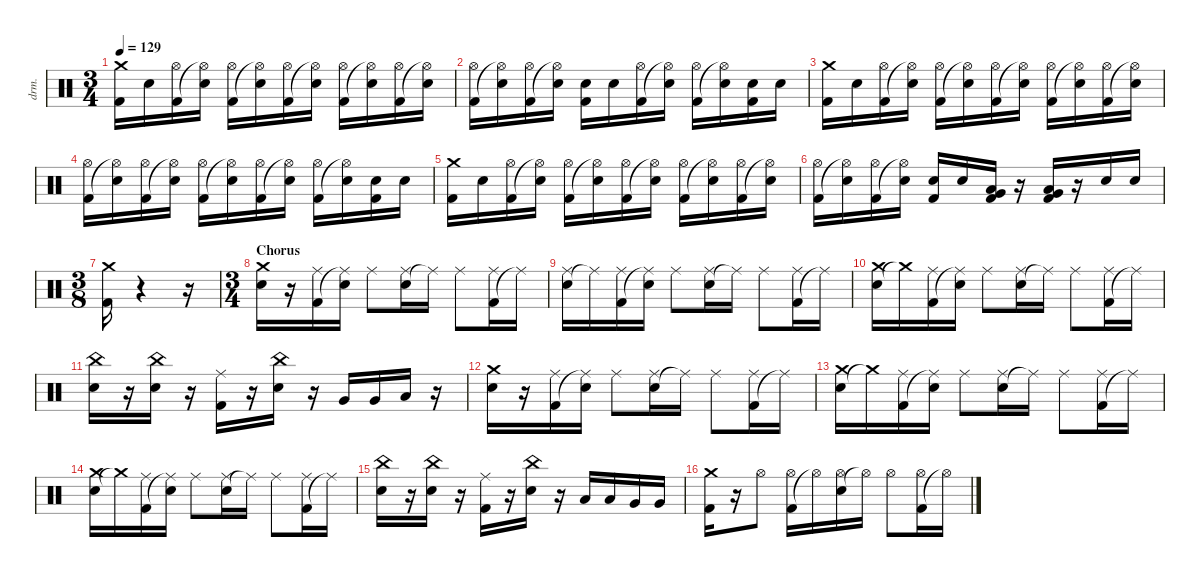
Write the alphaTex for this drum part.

\defaultSystemsLayout 4
\hideDynamics
\bracketExtendMode nobrackets
\otherSystemsTrackNameOrientation horizontal
\track ("Drumkit" "drm.") {instrument percussion}
\staff {score}
\articulation defaults
\ts (3 4)
\tempo 129
\clef neutral
\ks c
("Kick (hit) 2" "Crash medium (hit)").16{dy fff} "Snare (hit) 2".16 ("Kick (hit) 2" "Hi-Hat (open)"{acc #}).16 ("Hi-Hat (open)"{t acc #} "Snare (hit) 2").16 ("Kick (hit) 2" "Hi-Hat (open)"{acc #}).16 ("Hi-Hat (open)"{t acc #} "Snare (hit) 2").16 ("Kick (hit) 2" "Hi-Hat (open)"{acc #}).16 ("Hi-Hat (open)"{t acc #} "Snare (hit) 2").16 ("Kick (hit) 2" "Hi-Hat (open)"{acc #}).16 ("Hi-Hat (open)"{t acc #} "Snare (hit) 2").16 ("Kick (hit) 2" "Hi-Hat (open)"{acc #}).16 ("Hi-Hat (open)"{t acc #} "Snare (hit) 2").16 |
("Kick (hit) 2" "Hi-Hat (open)"{acc #}).16 ("Hi-Hat (open)"{t acc #} "Snare (hit) 2").16 ("Kick (hit) 2" "Hi-Hat (open)"{acc #}).16 ("Hi-Hat (open)"{t acc #} "Snare (hit) 2").16 ("Kick (hit) 2" "Snare (hit) 2").16 "Snare (hit) 2".16 ("Kick (hit) 2" "Hi-Hat (open)"{acc #}).16 ("Hi-Hat (open)"{t acc #} "Snare (hit) 2").16 ("Kick (hit) 2" "Hi-Hat (open)"{acc #}).16 ("Hi-Hat (open)"{t acc #} "Snare (hit) 2").16 ("Kick (hit) 2" "Snare (hit) 2").16 "Snare (hit) 2".16 |
("Kick (hit) 2" "Crash medium (hit)").16 "Snare (hit) 2".16 ("Kick (hit) 2" "Hi-Hat (open)"{acc #}).16 ("Hi-Hat (open)"{t acc #} "Snare (hit) 2").16 ("Kick (hit) 2" "Hi-Hat (open)"{acc #}).16 ("Hi-Hat (open)"{t acc #} "Snare (hit) 2").16 ("Kick (hit) 2" "Hi-Hat (open)"{acc #}).16 ("Hi-Hat (open)"{t acc #} "Snare (hit) 2").16 ("Kick (hit) 2" "Hi-Hat (open)"{acc #}).16 ("Hi-Hat (open)"{t acc #} "Snare (hit) 2").16 ("Kick (hit) 2" "Hi-Hat (open)"{acc #}).16 ("Hi-Hat (open)"{t acc #} "Snare (hit) 2").16 |
("Kick (hit) 2" "Hi-Hat (open)"{acc #}).16 ("Hi-Hat (open)"{t acc #} "Snare (hit) 2").16 ("Kick (hit) 2" "Hi-Hat (open)"{acc #}).16 ("Hi-Hat (open)"{t acc #} "Snare (hit) 2").16 ("Kick (hit) 2" "Hi-Hat (open)"{acc #}).16 ("Hi-Hat (open)"{t acc #} "Snare (hit) 2").16 ("Kick (hit) 2" "Hi-Hat (open)"{acc #}).16 ("Hi-Hat (open)"{t acc #} "Snare (hit) 2").16 ("Kick (hit) 2" "Hi-Hat (open)"{acc #}).16 ("Hi-Hat (open)"{t acc #} "Snare (hit) 2").16 ("Kick (hit) 2" "Snare (hit) 2").16 "Snare (hit) 2".16 |
("Kick (hit) 2" "Crash medium (hit)").16 "Snare (hit) 2".16 ("Kick (hit) 2" "Hi-Hat (open)"{acc #}).16 ("Hi-Hat (open)"{t acc #} "Snare (hit) 2").16 ("Kick (hit) 2" "Hi-Hat (open)"{acc #}).16 ("Hi-Hat (open)"{t acc #} "Snare (hit) 2").16 ("Kick (hit) 2" "Hi-Hat (open)"{acc #}).16 ("Hi-Hat (open)"{t acc #} "Snare (hit) 2").16 ("Kick (hit) 2" "Hi-Hat (open)"{acc #}).16 ("Hi-Hat (open)"{t acc #} "Snare (hit) 2").16 ("Kick (hit) 2" "Hi-Hat (open)"{acc #}).16 ("Hi-Hat (open)"{t acc #} "Snare (hit) 2").16 |
("Kick (hit) 2" "Hi-Hat (open)"{acc #}).16 ("Hi-Hat (open)"{t acc #} "Snare (hit) 2").16 ("Kick (hit) 2" "Hi-Hat (open)"{acc #}).16 ("Hi-Hat (open)"{t acc #} "Snare (hit) 2").16 ("Kick (hit) 2" "Snare (hit) 2").16 "Snare (hit) 2".16 ("Kick (hit) 2" "Very Low Tom (hit)" "Low Tom (hit)").16 r.16 ("Low Floor Tom (hit)" "Kick (hit) 2" "Very Low Tom (hit)").16 r.16 "Snare (hit) 2".16 "Snare (hit) 2".16 |
\ts (3 8)
\beaming (8 3)
("Kick (hit) 2" "Crash medium (hit)").16 r.4 r.16 |
\ts (3 4)
\beaming (8 2 2 2)
\section ("" "Chorus")
("Snare (hit) 2" "Crash medium (hit)").16 r.16 ("Kick (hit) 2" "Ride (middle)"{acc #}).16 ("Ride (middle)"{t acc #} "Snare (hit) 2").16 "Ride (middle)"{acc #}.8 ("Snare (hit) 2" "Ride (middle)"{acc #}).16 "Ride (middle)"{t acc #}.16 "Ride (middle)"{acc #}.8 ("Kick (hit) 2" "Ride (middle)"{acc #}).16 "Ride (middle)"{t acc #}.16 |
("Snare (hit) 2" "Ride (middle)"{acc #}).16 "Ride (middle)"{t acc #}.16 ("Kick (hit) 2" "Ride (middle)"{acc #}).16 ("Ride (middle)"{t acc #} "Snare (hit) 2").16 "Ride (middle)"{acc #}.8 ("Snare (hit) 2" "Ride (middle)"{acc #}).16 "Ride (middle)"{t acc #}.16 "Ride (middle)"{acc #}.8 ("Kick (hit) 2" "Ride (middle)"{acc #}).16 "Ride (middle)"{t acc #}.16 |
("Snare (hit) 2" "Crash medium (hit)").16 "Crash medium (hit)"{t}.16 ("Kick (hit) 2" "Ride (middle)"{acc #}).16 ("Ride (middle)"{t acc #} "Snare (hit) 2").16 "Ride (middle)"{acc #}.8 ("Snare (hit) 2" "Ride (middle)"{acc #}).16 "Ride (middle)"{t acc #}.16 "Ride (middle)"{acc #}.8 ("Kick (hit) 2" "Ride (middle)"{acc #}).16 "Ride (middle)"{t acc #}.16 |
("Snare (hit) 2" "China (hit)").16 r.16 ("Snare (hit) 2" "China (hit)").16 r.16 ("Kick (hit) 2" "Ride (middle)"{acc #}).16 r.16 ("Snare (hit) 2" "China (hit)").16 r.16 "Very Low Tom (hit)".16 "Very Low Tom (hit)".16 "Low Floor Tom (hit)".16 r.16 |
("Snare (hit) 2" "Crash medium (hit)").16 r.16 ("Kick (hit) 2" "Ride (middle)"{acc #}).16 ("Ride (middle)"{t acc #} "Snare (hit) 2").16 "Ride (middle)"{acc #}.8 ("Snare (hit) 2" "Ride (middle)"{acc #}).16 "Ride (middle)"{t acc #}.16 "Ride (middle)"{acc #}.8 ("Kick (hit) 2" "Ride (middle)"{acc #}).16 "Ride (middle)"{t acc #}.16 |
("Snare (hit) 2" "Crash medium (hit)").16 "Crash medium (hit)"{t}.16 ("Kick (hit) 2" "Ride (middle)"{acc #}).16 ("Ride (middle)"{t acc #} "Snare (hit) 2").16 "Ride (middle)"{acc #}.8 ("Snare (hit) 2" "Ride (middle)"{acc #}).16 "Ride (middle)"{t acc #}.16 "Ride (middle)"{acc #}.8 ("Kick (hit) 2" "Ride (middle)"{acc #}).16 "Ride (middle)"{t acc #}.16 |
("Snare (hit) 2" "Crash medium (hit)").16 "Crash medium (hit)"{t}.16 ("Kick (hit) 2" "Ride (middle)"{acc #}).16 ("Ride (middle)"{t acc #} "Snare (hit) 2").16 "Ride (middle)"{acc #}.8 ("Snare (hit) 2" "Ride (middle)"{acc #}).16 "Ride (middle)"{t acc #}.16 "Ride (middle)"{acc #}.8 ("Kick (hit) 2" "Ride (middle)"{acc #}).16 "Ride (middle)"{t acc #}.16 |
("Snare (hit) 2" "China (hit)").16 r.16 ("Snare (hit) 2" "China (hit)").16 r.16 ("Kick (hit) 2" "Ride (middle)"{acc #}).16 r.16 ("Snare (hit) 2" "China (hit)").16 r.16 "Low Tom (hit)".16 "Low Tom (hit)".16 "Very Low Tom (hit)".16 "Very Low Tom (hit)".16 |
("Kick (hit) 2" "Crash medium (hit)").16 r.16 "Hi-Hat (open)"{acc #}.8 ("Kick (hit) 2" "Hi-Hat (open)"{acc #}).16 "Hi-Hat (open)"{t acc #}.16 ("Snare (hit) 2" "Hi-Hat (open)"{acc #}).16 "Hi-Hat (open)"{t acc #}.16 "Hi-Hat (open)"{acc #}.8 ("Kick (hit) 2" "Hi-Hat (open)"{acc #}).16 "Hi-Hat (open)"{t acc #}.16
